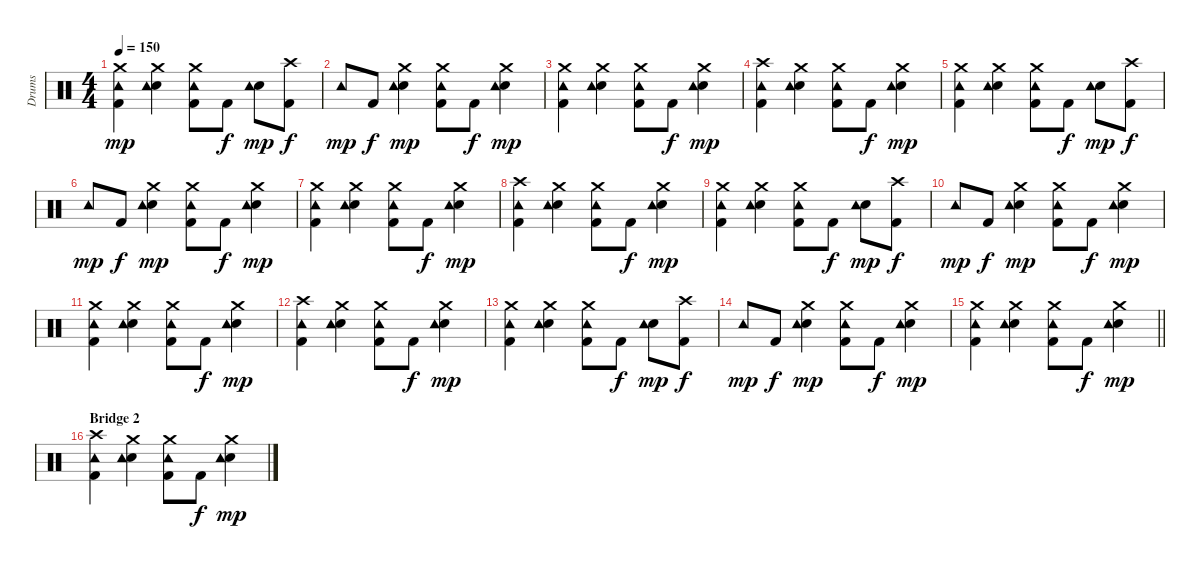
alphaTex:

\track ("Drums" "Drums") {instrument percussion}
\staff {score}
\articulation defaults
\ts (4 4)
\tempo 150
\clef neutral
\ks c
("Crash medium (hit)" "Kick (hit) 2" "Tambourine (hit)").4{dy mp} ("Crash medium (hit)" "Snare (hit) 2" "Tambourine (hit)").4 ("Crash medium (hit)" "Kick (hit) 2" "Tambourine (hit)").8 "Kick (hit) 2".8{dy f} ("Snare (hit) 2" "Tambourine (hit)").8{dy mp} ("Crash high (hit)" "Kick (hit) 2").8{dy f} |
"Tambourine (hit)".8{dy mp} "Kick (hit) 2".8{dy f} ("Crash medium (hit)" "Snare (hit) 2" "Tambourine (hit)").4{dy mp} ("Crash medium (hit)" "Kick (hit) 2" "Tambourine (hit)").8 "Kick (hit) 2".8{dy f} ("Crash medium (hit)" "Snare (hit) 2" "Tambourine (hit)").4{dy mp} |
("Crash medium (hit)" "Kick (hit) 2" "Tambourine (hit)").4 ("Crash medium (hit)" "Snare (hit) 2" "Tambourine (hit)").4 ("Crash medium (hit)" "Kick (hit) 2" "Tambourine (hit)").8 "Kick (hit) 2".8{dy f} ("Crash medium (hit)" "Snare (hit) 2" "Tambourine (hit)").4{dy mp} |
("Crash high (hit)" "Kick (hit) 2" "Tambourine (hit)").4 ("Crash medium (hit)" "Snare (hit) 2" "Tambourine (hit)").4 ("Crash medium (hit)" "Kick (hit) 2" "Tambourine (hit)").8 "Kick (hit) 2".8{dy f} ("Crash medium (hit)" "Snare (hit) 2" "Tambourine (hit)").4{dy mp} |
("Crash medium (hit)" "Kick (hit) 2" "Tambourine (hit)").4 ("Crash medium (hit)" "Snare (hit) 2" "Tambourine (hit)").4 ("Crash medium (hit)" "Kick (hit) 2" "Tambourine (hit)").8 "Kick (hit) 2".8{dy f} ("Snare (hit) 2" "Tambourine (hit)").8{dy mp} ("Crash high (hit)" "Kick (hit) 2").8{dy f} |
"Tambourine (hit)".8{dy mp} "Kick (hit) 2".8{dy f} ("Crash medium (hit)" "Snare (hit) 2" "Tambourine (hit)").4{dy mp} ("Crash medium (hit)" "Kick (hit) 2" "Tambourine (hit)").8 "Kick (hit) 2".8{dy f} ("Crash medium (hit)" "Snare (hit) 2" "Tambourine (hit)").4{dy mp} |
("Crash medium (hit)" "Kick (hit) 2" "Tambourine (hit)").4 ("Crash medium (hit)" "Snare (hit) 2" "Tambourine (hit)").4 ("Crash medium (hit)" "Kick (hit) 2" "Tambourine (hit)").8 "Kick (hit) 2".8{dy f} ("Crash medium (hit)" "Snare (hit) 2" "Tambourine (hit)").4{dy mp} |
("Crash high (hit)" "Kick (hit) 2" "Tambourine (hit)").4 ("Crash medium (hit)" "Snare (hit) 2" "Tambourine (hit)").4 ("Crash medium (hit)" "Kick (hit) 2" "Tambourine (hit)").8 "Kick (hit) 2".8{dy f} ("Crash medium (hit)" "Snare (hit) 2" "Tambourine (hit)").4{dy mp} |
("Crash medium (hit)" "Kick (hit) 2" "Tambourine (hit)").4 ("Crash medium (hit)" "Snare (hit) 2" "Tambourine (hit)").4 ("Crash medium (hit)" "Kick (hit) 2" "Tambourine (hit)").8 "Kick (hit) 2".8{dy f} ("Snare (hit) 2" "Tambourine (hit)").8{dy mp} ("Crash high (hit)" "Kick (hit) 2").8{dy f} |
"Tambourine (hit)".8{dy mp} "Kick (hit) 2".8{dy f} ("Crash medium (hit)" "Snare (hit) 2" "Tambourine (hit)").4{dy mp} ("Crash medium (hit)" "Kick (hit) 2" "Tambourine (hit)").8 "Kick (hit) 2".8{dy f} ("Crash medium (hit)" "Snare (hit) 2" "Tambourine (hit)").4{dy mp} |
("Crash medium (hit)" "Kick (hit) 2" "Tambourine (hit)").4 ("Crash medium (hit)" "Snare (hit) 2" "Tambourine (hit)").4 ("Crash medium (hit)" "Kick (hit) 2" "Tambourine (hit)").8 "Kick (hit) 2".8{dy f} ("Crash medium (hit)" "Snare (hit) 2" "Tambourine (hit)").4{dy mp} |
("Crash high (hit)" "Kick (hit) 2" "Tambourine (hit)").4 ("Crash medium (hit)" "Snare (hit) 2" "Tambourine (hit)").4 ("Crash medium (hit)" "Kick (hit) 2" "Tambourine (hit)").8 "Kick (hit) 2".8{dy f} ("Crash medium (hit)" "Snare (hit) 2" "Tambourine (hit)").4{dy mp} |
("Crash medium (hit)" "Kick (hit) 2" "Tambourine (hit)").4 ("Crash medium (hit)" "Snare (hit) 2" "Tambourine (hit)").4 ("Crash medium (hit)" "Kick (hit) 2" "Tambourine (hit)").8 "Kick (hit) 2".8{dy f} ("Snare (hit) 2" "Tambourine (hit)").8{dy mp} ("Crash high (hit)" "Kick (hit) 2").8{dy f} |
"Tambourine (hit)".8{dy mp} "Kick (hit) 2".8{dy f} ("Crash medium (hit)" "Snare (hit) 2" "Tambourine (hit)").4{dy mp} ("Crash medium (hit)" "Kick (hit) 2" "Tambourine (hit)").8 "Kick (hit) 2".8{dy f} ("Crash medium (hit)" "Snare (hit) 2" "Tambourine (hit)").4{dy mp} |
\barLineRight lightlight
("Crash medium (hit)" "Kick (hit) 2" "Tambourine (hit)").4 ("Crash medium (hit)" "Snare (hit) 2" "Tambourine (hit)").4 ("Crash medium (hit)" "Kick (hit) 2" "Tambourine (hit)").8 "Kick (hit) 2".8{dy f} ("Crash medium (hit)" "Snare (hit) 2" "Tambourine (hit)").4{dy mp} |
\section ("" "Bridge 2")
("Crash high (hit)" "Kick (hit) 2" "Tambourine (hit)").4 ("Crash medium (hit)" "Snare (hit) 2" "Tambourine (hit)").4 ("Crash medium (hit)" "Kick (hit) 2" "Tambourine (hit)").8 "Kick (hit) 2".8{dy f} ("Crash medium (hit)" "Snare (hit) 2" "Tambourine (hit)").4{dy mp}
